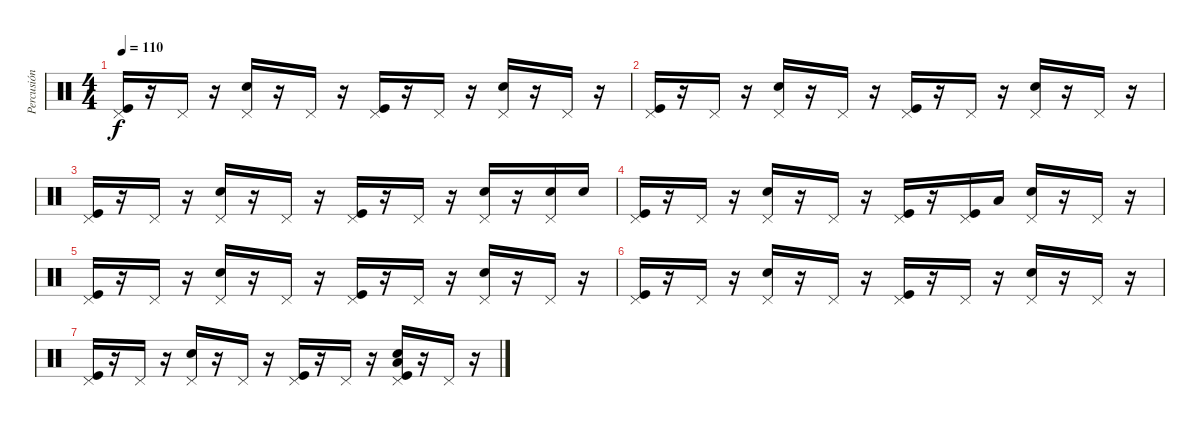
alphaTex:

\track ("Percusión" "Percusión") {instrument percussion}
\staff {score}
\articulation defaults
\ts (4 4)
\tempo 110
\clef neutral
\ks c
("Pedal Hi-Hat (hit)" "Kick (hit)").16{dy f} r.16 "Pedal Hi-Hat (hit)".16 r.16 ("Pedal Hi-Hat (hit)" "Electric Snare (hit)").16 r.16 "Pedal Hi-Hat (hit)".16 r.16 ("Pedal Hi-Hat (hit)" "Kick (hit)").16 r.16 "Pedal Hi-Hat (hit)".16 r.16 ("Pedal Hi-Hat (hit)" "Electric Snare (hit)").16 r.16 "Pedal Hi-Hat (hit)".16 r.16 |
("Pedal Hi-Hat (hit)" "Kick (hit)").16 r.16 "Pedal Hi-Hat (hit)".16 r.16 ("Pedal Hi-Hat (hit)" "Electric Snare (hit)").16 r.16 "Pedal Hi-Hat (hit)".16 r.16 ("Pedal Hi-Hat (hit)" "Kick (hit)").16 r.16 "Pedal Hi-Hat (hit)".16 r.16 ("Pedal Hi-Hat (hit)" "Electric Snare (hit)").16 r.16 "Pedal Hi-Hat (hit)".16 r.16 |
("Pedal Hi-Hat (hit)" "Kick (hit)").16 r.16 "Pedal Hi-Hat (hit)".16 r.16 ("Pedal Hi-Hat (hit)" "Electric Snare (hit)").16 r.16 "Pedal Hi-Hat (hit)".16 r.16 ("Pedal Hi-Hat (hit)" "Kick (hit)").16 r.16 "Pedal Hi-Hat (hit)".16 r.16 ("Pedal Hi-Hat (hit)" "Electric Snare (hit)").16 r.16 ("Pedal Hi-Hat (hit)" "Electric Snare (hit)").16 "Electric Snare (hit)".16 |
("Pedal Hi-Hat (hit)" "Kick (hit)").16 r.16 "Pedal Hi-Hat (hit)".16 r.16 ("Pedal Hi-Hat (hit)" "Electric Snare (hit)").16 r.16 "Pedal Hi-Hat (hit)".16 r.16 ("Pedal Hi-Hat (hit)" "Kick (hit)").16 r.16 ("Pedal Hi-Hat (hit)" "Kick (hit)").16 "Low Floor Tom (hit)".16 ("Pedal Hi-Hat (hit)" "Electric Snare (hit)").16 r.16 "Pedal Hi-Hat (hit)".16 r.16 |
("Pedal Hi-Hat (hit)" "Kick (hit)").16 r.16 "Pedal Hi-Hat (hit)".16 r.16 ("Pedal Hi-Hat (hit)" "Electric Snare (hit)").16 r.16 "Pedal Hi-Hat (hit)".16 r.16 ("Pedal Hi-Hat (hit)" "Kick (hit)").16 r.16 "Pedal Hi-Hat (hit)".16 r.16 ("Pedal Hi-Hat (hit)" "Electric Snare (hit)").16 r.16 "Pedal Hi-Hat (hit)".16 r.16 |
("Pedal Hi-Hat (hit)" "Kick (hit)").16 r.16 "Pedal Hi-Hat (hit)".16 r.16 ("Pedal Hi-Hat (hit)" "Electric Snare (hit)").16 r.16 "Pedal Hi-Hat (hit)".16 r.16 ("Pedal Hi-Hat (hit)" "Kick (hit)").16 r.16 "Pedal Hi-Hat (hit)".16 r.16 ("Pedal Hi-Hat (hit)" "Electric Snare (hit)").16 r.16 "Pedal Hi-Hat (hit)".16 r.16 |
("Pedal Hi-Hat (hit)" "Kick (hit)").16 r.16 "Pedal Hi-Hat (hit)".16 r.16 ("Pedal Hi-Hat (hit)" "Electric Snare (hit)").16 r.16 "Pedal Hi-Hat (hit)".16 r.16 ("Pedal Hi-Hat (hit)" "Kick (hit)").16 r.16 "Pedal Hi-Hat (hit)".16 r.16 ("Pedal Hi-Hat (hit)" "Electric Snare (hit)" "Kick (hit)" "Low Floor Tom (hit)").16 r.16 "Pedal Hi-Hat (hit)".16 r.16
